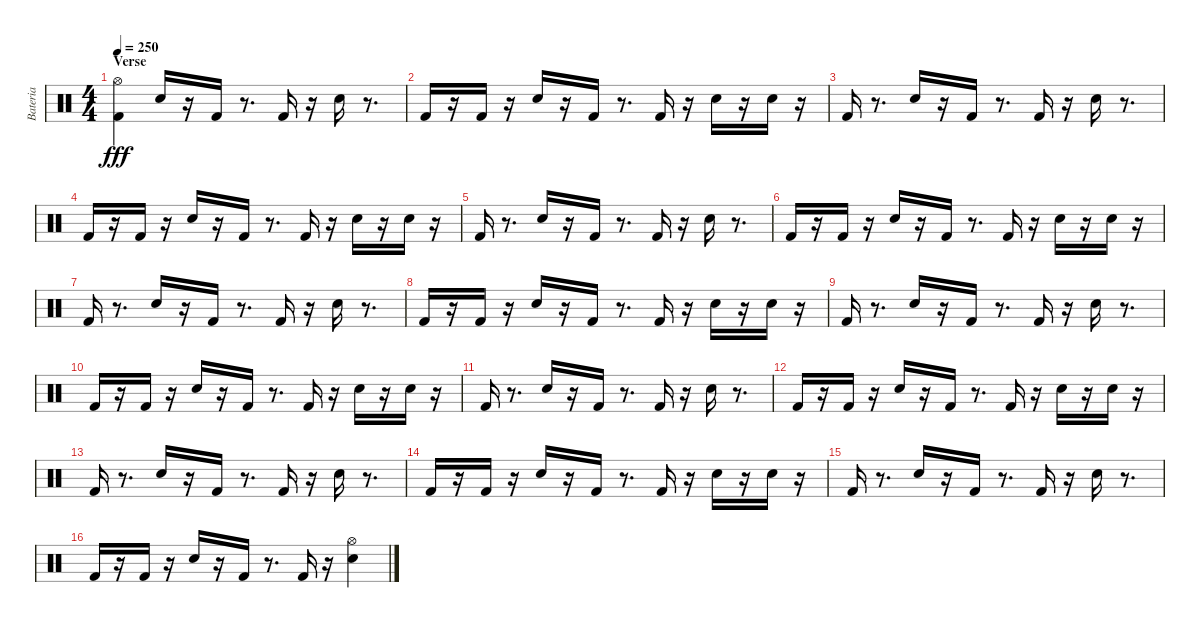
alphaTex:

\track ("Bateria" "Bateria") {instrument percussion}
\staff {score}
\articulation defaults
\ts (4 4)
\section ("" "Verse")
\tempo 250
\clef neutral
\ks c
("Hi-Hat (open)" "Kick (hit) 2").4{dy fff} "Electric Snare (hit)".16 r.16 "Kick (hit) 2".16 r.8{d} "Kick (hit) 2".16 r.16 "Electric Snare (hit)".16 r.8{d} |
"Kick (hit) 2".16 r.16 "Kick (hit) 2".16 r.16 "Electric Snare (hit)".16 r.16 "Kick (hit) 2".16 r.8{d} "Kick (hit) 2".16 r.16 "Electric Snare (hit)".16 r.16 "Electric Snare (hit)".16 r.16 |
"Kick (hit) 2".16 r.8{d} "Electric Snare (hit)".16 r.16 "Kick (hit) 2".16 r.8{d} "Kick (hit) 2".16 r.16 "Electric Snare (hit)".16 r.8{d} |
"Kick (hit) 2".16 r.16 "Kick (hit) 2".16 r.16 "Electric Snare (hit)".16 r.16 "Kick (hit) 2".16 r.8{d} "Kick (hit) 2".16 r.16 "Electric Snare (hit)".16 r.16 "Electric Snare (hit)".16 r.16 |
"Kick (hit) 2".16 r.8{d} "Electric Snare (hit)".16 r.16 "Kick (hit) 2".16 r.8{d} "Kick (hit) 2".16 r.16 "Electric Snare (hit)".16 r.8{d} |
"Kick (hit) 2".16 r.16 "Kick (hit) 2".16 r.16 "Electric Snare (hit)".16 r.16 "Kick (hit) 2".16 r.8{d} "Kick (hit) 2".16 r.16 "Electric Snare (hit)".16 r.16 "Electric Snare (hit)".16 r.16 |
"Kick (hit) 2".16 r.8{d} "Electric Snare (hit)".16 r.16 "Kick (hit) 2".16 r.8{d} "Kick (hit) 2".16 r.16 "Electric Snare (hit)".16 r.8{d} |
"Kick (hit) 2".16 r.16 "Kick (hit) 2".16 r.16 "Electric Snare (hit)".16 r.16 "Kick (hit) 2".16 r.8{d} "Kick (hit) 2".16 r.16 "Electric Snare (hit)".16 r.16 "Electric Snare (hit)".16 r.16 |
"Kick (hit) 2".16 r.8{d} "Electric Snare (hit)".16 r.16 "Kick (hit) 2".16 r.8{d} "Kick (hit) 2".16 r.16 "Electric Snare (hit)".16 r.8{d} |
"Kick (hit) 2".16 r.16 "Kick (hit) 2".16 r.16 "Electric Snare (hit)".16 r.16 "Kick (hit) 2".16 r.8{d} "Kick (hit) 2".16 r.16 "Electric Snare (hit)".16 r.16 "Electric Snare (hit)".16 r.16 |
"Kick (hit) 2".16 r.8{d} "Electric Snare (hit)".16 r.16 "Kick (hit) 2".16 r.8{d} "Kick (hit) 2".16 r.16 "Electric Snare (hit)".16 r.8{d} |
"Kick (hit) 2".16 r.16 "Kick (hit) 2".16 r.16 "Electric Snare (hit)".16 r.16 "Kick (hit) 2".16 r.8{d} "Kick (hit) 2".16 r.16 "Electric Snare (hit)".16 r.16 "Electric Snare (hit)".16 r.16 |
"Kick (hit) 2".16 r.8{d} "Electric Snare (hit)".16 r.16 "Kick (hit) 2".16 r.8{d} "Kick (hit) 2".16 r.16 "Electric Snare (hit)".16 r.8{d} |
"Kick (hit) 2".16 r.16 "Kick (hit) 2".16 r.16 "Electric Snare (hit)".16 r.16 "Kick (hit) 2".16 r.8{d} "Kick (hit) 2".16 r.16 "Electric Snare (hit)".16 r.16 "Electric Snare (hit)".16 r.16 |
"Kick (hit) 2".16 r.8{d} "Electric Snare (hit)".16 r.16 "Kick (hit) 2".16 r.8{d} "Kick (hit) 2".16 r.16 "Electric Snare (hit)".16 r.8{d} |
"Kick (hit) 2".16 r.16 "Kick (hit) 2".16 r.16 "Electric Snare (hit)".16 r.16 "Kick (hit) 2".16 r.8{d} "Kick (hit) 2".16 r.16 ("Electric Snare (hit)" "Hi-Hat (open)").4
